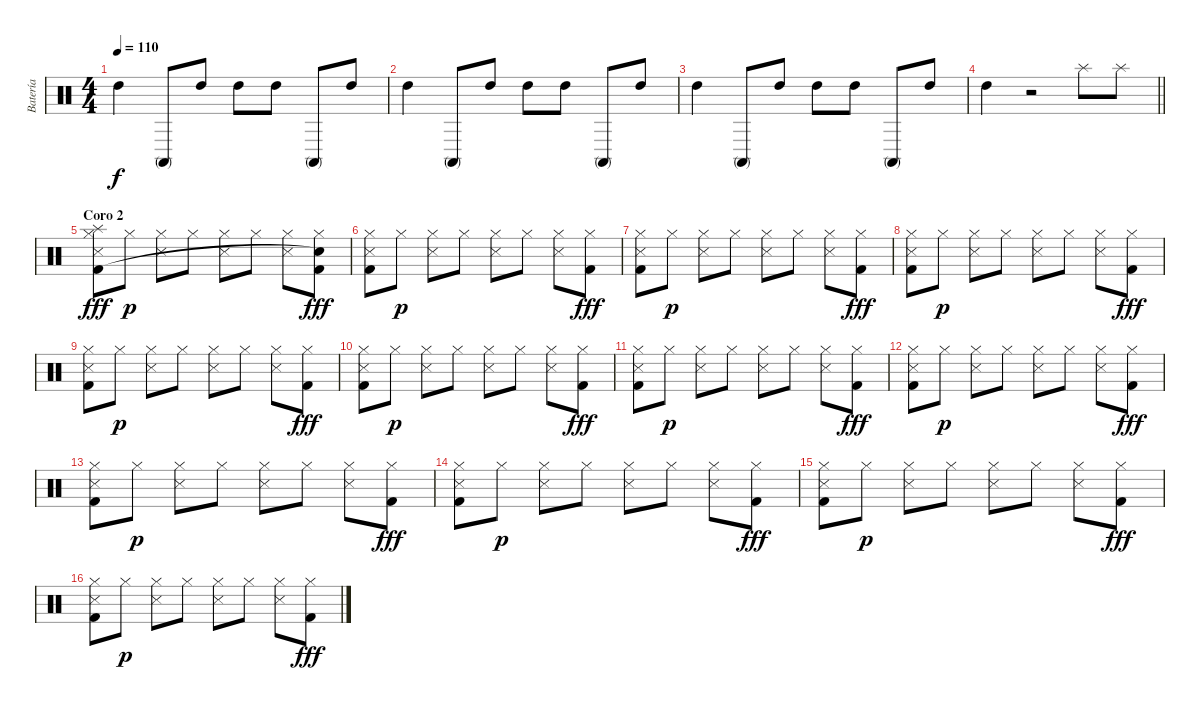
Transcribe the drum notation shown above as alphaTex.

\track ("Batería" "Batería") {instrument percussion}
\staff {score}
\articulation defaults
\ts (4 4)
\tempo 110
\clef neutral
\ks c "High Tom (hit)".4{dy f} "Conga high (mute)".8 "High Tom (hit)".8 "High Tom (hit)".8 "High Tom (hit)".8 "Conga high (mute)".8 "High Tom (hit)".8
|
"High Tom (hit)".4 "Conga high (mute)".8 "High Tom (hit)".8 "High Tom (hit)".8 "High Tom (hit)".8 "Conga high (mute)".8 "High Tom (hit)".8 |
"High Tom (hit)".4 "Conga high (mute)".8 "High Tom (hit)".8 "High Tom (hit)".8 "High Tom (hit)".8 "Conga high (mute)".8 "High Tom (hit)".8 |
\barLineRight lightlight "High Tom (hit)".4
r.2 "Splash (hit)".8 "Splash (hit)".8 |
\section ("" "Coro 2")
("Hi-Hat (closed)" "Snare (side stick) 3" "Kick (hit) 2" "Splash (hit)").8{dy fff} "Hi-Hat (closed)".8{dy p} ("Hi-Hat (closed)" "Snare (side stick) 3").8 "Hi-Hat (closed)".8 ("Hi-Hat (closed)" "Snare (side stick) 3").8 "Hi-Hat (closed)".8 ("Hi-Hat (closed)" "Snare (side stick) 3").8 ("Hi-Hat (closed)" "Kick (hit) 2" "Snare (hit)"{t}).8{dy fff} |
("Hi-Hat (closed)" "Snare (side stick) 3" "Kick (hit) 2").8 "Hi-Hat (closed)".8{dy p} ("Hi-Hat (closed)" "Snare (side stick) 3").8 "Hi-Hat (closed)".8 ("Hi-Hat (closed)" "Snare (side stick) 3").8 "Hi-Hat (closed)".8 ("Hi-Hat (closed)" "Snare (side stick) 3").8 ("Hi-Hat (closed)" "Kick (hit) 2").8{dy fff} |
("Hi-Hat (closed)" "Snare (side stick) 3" "Kick (hit) 2").8 "Hi-Hat (closed)".8{dy p} ("Hi-Hat (closed)" "Snare (side stick) 3").8 "Hi-Hat (closed)".8 ("Hi-Hat (closed)" "Snare (side stick) 3").8 "Hi-Hat (closed)".8 ("Hi-Hat (closed)" "Snare (side stick) 3").8 ("Hi-Hat (closed)" "Kick (hit) 2").8{dy fff} |
("Hi-Hat (closed)" "Snare (side stick) 3" "Kick (hit) 2").8 "Hi-Hat (closed)".8{dy p} ("Hi-Hat (closed)" "Snare (side stick) 3").8 "Hi-Hat (closed)".8 ("Hi-Hat (closed)" "Snare (side stick) 3").8 "Hi-Hat (closed)".8 ("Hi-Hat (closed)" "Snare (side stick) 3").8 ("Hi-Hat (closed)" "Kick (hit) 2").8{dy fff} |
("Hi-Hat (closed)" "Snare (side stick) 3" "Kick (hit) 2").8 "Hi-Hat (closed)".8{dy p} ("Hi-Hat (closed)" "Snare (side stick) 3").8 "Hi-Hat (closed)".8 ("Hi-Hat (closed)" "Snare (side stick) 3").8 "Hi-Hat (closed)".8 ("Hi-Hat (closed)" "Snare (side stick) 3").8 ("Hi-Hat (closed)" "Kick (hit) 2").8{dy fff} |
("Hi-Hat (closed)" "Snare (side stick) 3" "Kick (hit) 2").8 "Hi-Hat (closed)".8{dy p} ("Hi-Hat (closed)" "Snare (side stick) 3").8 "Hi-Hat (closed)".8 ("Hi-Hat (closed)" "Snare (side stick) 3").8 "Hi-Hat (closed)".8 ("Hi-Hat (closed)" "Snare (side stick) 3").8 ("Hi-Hat (closed)" "Kick (hit) 2").8{dy fff} |
("Hi-Hat (closed)" "Snare (side stick) 3" "Kick (hit) 2").8 "Hi-Hat (closed)".8{dy p} ("Hi-Hat (closed)" "Snare (side stick) 3").8 "Hi-Hat (closed)".8 ("Hi-Hat (closed)" "Snare (side stick) 3").8 "Hi-Hat (closed)".8 ("Hi-Hat (closed)" "Snare (side stick) 3").8 ("Hi-Hat (closed)" "Kick (hit) 2").8{dy fff} |
("Hi-Hat (closed)" "Snare (side stick) 3" "Kick (hit) 2").8 "Hi-Hat (closed)".8{dy p} ("Hi-Hat (closed)" "Snare (side stick) 3").8 "Hi-Hat (closed)".8 ("Hi-Hat (closed)" "Snare (side stick) 3").8 "Hi-Hat (closed)".8 ("Hi-Hat (closed)" "Snare (side stick) 3").8 ("Hi-Hat (closed)" "Kick (hit) 2").8{dy fff} |
("Hi-Hat (closed)" "Snare (side stick) 3" "Kick (hit) 2").8 "Hi-Hat (closed)".8{dy p} ("Hi-Hat (closed)" "Snare (side stick) 3").8 "Hi-Hat (closed)".8 ("Hi-Hat (closed)" "Snare (side stick) 3").8 "Hi-Hat (closed)".8 ("Hi-Hat (closed)" "Snare (side stick) 3").8 ("Hi-Hat (closed)" "Kick (hit) 2").8{dy fff} |
("Hi-Hat (closed)" "Snare (side stick) 3" "Kick (hit) 2").8 "Hi-Hat (closed)".8{dy p} ("Hi-Hat (closed)" "Snare (side stick) 3").8 "Hi-Hat (closed)".8 ("Hi-Hat (closed)" "Snare (side stick) 3").8 "Hi-Hat (closed)".8 ("Hi-Hat (closed)" "Snare (side stick) 3").8 ("Hi-Hat (closed)" "Kick (hit) 2").8{dy fff} |
("Hi-Hat (closed)" "Snare (side stick) 3" "Kick (hit) 2").8 "Hi-Hat (closed)".8{dy p} ("Hi-Hat (closed)" "Snare (side stick) 3").8 "Hi-Hat (closed)".8 ("Hi-Hat (closed)" "Snare (side stick) 3").8 "Hi-Hat (closed)".8 ("Hi-Hat (closed)" "Snare (side stick) 3").8 ("Hi-Hat (closed)" "Kick (hit) 2").8{dy fff} |
("Hi-Hat (closed)" "Snare (side stick) 3" "Kick (hit) 2").8 "Hi-Hat (closed)".8{dy p} ("Hi-Hat (closed)" "Snare (side stick) 3").8 "Hi-Hat (closed)".8 ("Hi-Hat (closed)" "Snare (side stick) 3").8 "Hi-Hat (closed)".8 ("Hi-Hat (closed)" "Snare (side stick) 3").8 ("Hi-Hat (closed)" "Kick (hit) 2").8{dy fff}
